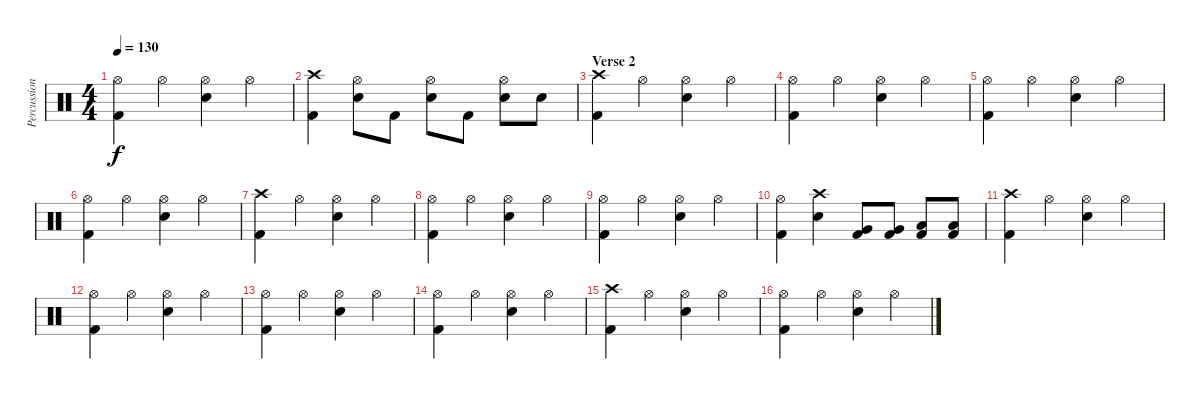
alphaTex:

\track ("Percussion" "Percussion") {instrument percussion}
\staff {score}
\articulation defaults
\ts (4 4)
\tempo 130
\clef neutral
\ks c
("Hi-Hat (open)" "Kick (hit) 2").4{dy f} "Hi-Hat (open)".4 ("Hi-Hat (open)" "Snare (hit) 2").4 "Hi-Hat (open)".4 |
("Crash high (hit)" "Kick (hit) 2").4 ("Hi-Hat (open)" "Snare (hit) 2").8 "Kick (hit) 2".8 ("Hi-Hat (open)" "Snare (hit) 2").8 "Kick (hit) 2".8 ("Hi-Hat (open)" "Snare (hit) 2").8 "Snare (hit) 2".8 |
\section ("" "Verse 2")
("Crash high (hit)" "Kick (hit) 2").4 "Hi-Hat (open)".4 ("Hi-Hat (open)" "Snare (hit) 2").4 "Hi-Hat (open)".4 |
("Hi-Hat (open)" "Kick (hit) 2").4 "Hi-Hat (open)".4 ("Hi-Hat (open)" "Snare (hit) 2").4 "Hi-Hat (open)".4 |
("Hi-Hat (open)" "Kick (hit) 2").4 "Hi-Hat (open)".4 ("Hi-Hat (open)" "Snare (hit) 2").4 "Hi-Hat (open)".4 |
("Hi-Hat (open)" "Kick (hit) 2").4 "Hi-Hat (open)".4 ("Hi-Hat (open)" "Snare (hit) 2").4 "Hi-Hat (open)".4 |
("Crash high (hit)" "Kick (hit) 2").4 "Hi-Hat (open)".4 ("Hi-Hat (open)" "Snare (hit) 2").4 "Hi-Hat (open)".4 |
("Hi-Hat (open)" "Kick (hit) 2").4 "Hi-Hat (open)".4 ("Hi-Hat (open)" "Snare (hit) 2").4 "Hi-Hat (open)".4 |
("Hi-Hat (open)" "Kick (hit) 2").4 "Hi-Hat (open)".4 ("Hi-Hat (open)" "Snare (hit) 2").4 "Hi-Hat (open)".4 |
("Hi-Hat (open)" "Kick (hit) 2").4 ("Crash high (hit)" "Snare (hit) 2").4 ("Very Low Tom (hit)" "Kick (hit) 2").8 ("Very Low Tom (hit)" "Kick (hit) 2").8 ("Low Floor Tom (hit)" "Kick (hit) 2").8 ("Low Floor Tom (hit)" "Kick (hit) 2").8 |
("Crash high (hit)" "Kick (hit) 2").4 "Hi-Hat (open)".4 ("Hi-Hat (open)" "Snare (hit) 2").4 "Hi-Hat (open)".4 |
("Hi-Hat (open)" "Kick (hit) 2").4 "Hi-Hat (open)".4 ("Hi-Hat (open)" "Snare (hit) 2").4 "Hi-Hat (open)".4 |
("Hi-Hat (open)" "Kick (hit) 2").4 "Hi-Hat (open)".4 ("Hi-Hat (open)" "Snare (hit) 2").4 "Hi-Hat (open)".4 |
("Hi-Hat (open)" "Kick (hit) 2").4 "Hi-Hat (open)".4 ("Hi-Hat (open)" "Snare (hit) 2").4 "Hi-Hat (open)".4 |
("Crash high (hit)" "Kick (hit) 2").4 "Hi-Hat (open)".4 ("Hi-Hat (open)" "Snare (hit) 2").4 "Hi-Hat (open)".4 |
("Hi-Hat (open)" "Kick (hit) 2").4 "Hi-Hat (open)".4 ("Hi-Hat (open)" "Snare (hit) 2").4 "Hi-Hat (open)".4
